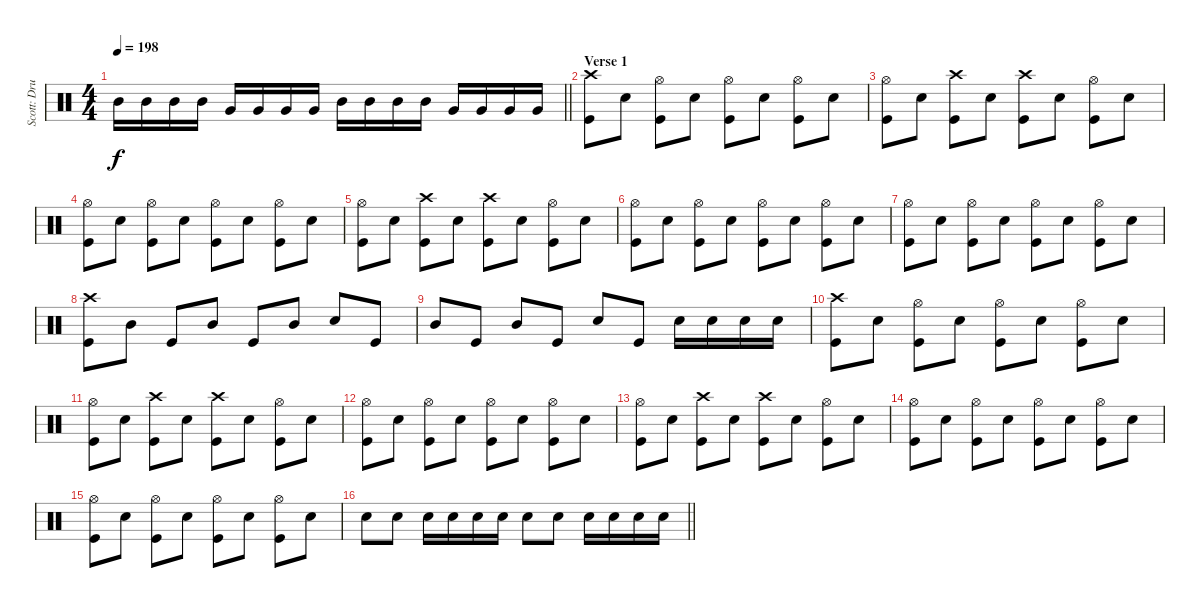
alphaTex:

\track ("Scott: Drums" "Scott: Dru") {instrument percussion}
\staff {score}
\articulation defaults
\ts (4 4)
\tempo 198
\clef neutral
\barLineRight lightlight
\ks c "Mid Tom (hit)".16{dy f} "Mid Tom (hit)".16 "Mid Tom (hit)".16 "Mid Tom (hit)".16 "Very Low Tom (hit)".16 "Very Low Tom (hit)".16 "Very Low Tom (hit)".16 "Very Low Tom (hit)".16 "Mid Tom (hit)".16 "Mid Tom (hit)".16 "Mid Tom (hit)".16 "Mid Tom (hit)".16 "Very Low Tom (hit)".16 "Very Low Tom (hit)".16 "Very Low Tom (hit)".16 "Very Low Tom (hit)".16
|
\section ("" "Verse 1")
("Crash high (hit)" "Kick (hit)").8 "Electric Snare (hit)".8 ("Hi-Hat (open)" "Kick (hit)").8 "Electric Snare (hit)".8 ("Hi-Hat (open)" "Kick (hit)").8 "Electric Snare (hit)".8 ("Hi-Hat (open)" "Kick (hit)").8 "Electric Snare (hit)".8 |
("Hi-Hat (open)" "Kick (hit)").8 "Electric Snare (hit)".8 ("Crash high (hit)" "Kick (hit)").8 "Electric Snare (hit)".8 ("Crash high (hit)" "Kick (hit)").8 "Electric Snare (hit)".8 ("Hi-Hat (open)" "Kick (hit)").8 "Electric Snare (hit)".8 |
("Hi-Hat (open)" "Kick (hit)").8 "Electric Snare (hit)".8 ("Hi-Hat (open)" "Kick (hit)").8 "Electric Snare (hit)".8 ("Hi-Hat (open)" "Kick (hit)").8 "Electric Snare (hit)".8 ("Hi-Hat (open)" "Kick (hit)").8 "Electric Snare (hit)".8 |
("Hi-Hat (open)" "Kick (hit)").8 "Electric Snare (hit)".8 ("Crash high (hit)" "Kick (hit)").8 "Electric Snare (hit)".8 ("Crash high (hit)" "Kick (hit)").8 "Electric Snare (hit)".8 ("Hi-Hat (open)" "Kick (hit)").8 "Electric Snare (hit)".8 |
("Hi-Hat (open)" "Kick (hit)").8 "Electric Snare (hit)".8 ("Hi-Hat (open)" "Kick (hit)").8 "Electric Snare (hit)".8 ("Hi-Hat (open)" "Kick (hit)").8 "Electric Snare (hit)".8 ("Hi-Hat (open)" "Kick (hit)").8 "Electric Snare (hit)".8 |
("Hi-Hat (open)" "Kick (hit)").8 "Electric Snare (hit)".8 ("Hi-Hat (open)" "Kick (hit)").8 "Electric Snare (hit)".8 ("Hi-Hat (open)" "Kick (hit)").8 "Electric Snare (hit)".8 ("Hi-Hat (open)" "Kick (hit)").8 "Electric Snare (hit)".8 |
("Crash high (hit)" "Kick (hit)").8 "Mid Tom (hit)".8 "Kick (hit)".8 "Mid Tom (hit)".8 "Kick (hit)".8 "Mid Tom (hit)".8 "Electric Snare (hit)".8 "Kick (hit)".8 |
"Mid Tom (hit)".8 "Kick (hit)".8 "Mid Tom (hit)".8 "Kick (hit)".8 "Electric Snare (hit)".8 "Kick (hit)".8 "Electric Snare (hit)".16 "Electric Snare (hit)".16 "Electric Snare (hit)".16 "Electric Snare (hit)".16 |
("Crash high (hit)" "Kick (hit)").8 "Electric Snare (hit)".8 ("Hi-Hat (open)" "Kick (hit)").8 "Electric Snare (hit)".8 ("Hi-Hat (open)" "Kick (hit)").8 "Electric Snare (hit)".8 ("Hi-Hat (open)" "Kick (hit)").8 "Electric Snare (hit)".8 |
("Hi-Hat (open)" "Kick (hit)").8 "Electric Snare (hit)".8 ("Crash high (hit)" "Kick (hit)").8 "Electric Snare (hit)".8 ("Crash high (hit)" "Kick (hit)").8 "Electric Snare (hit)".8 ("Hi-Hat (open)" "Kick (hit)").8 "Electric Snare (hit)".8 |
("Hi-Hat (open)" "Kick (hit)").8 "Electric Snare (hit)".8 ("Hi-Hat (open)" "Kick (hit)").8 "Electric Snare (hit)".8 ("Hi-Hat (open)" "Kick (hit)").8 "Electric Snare (hit)".8 ("Hi-Hat (open)" "Kick (hit)").8 "Electric Snare (hit)".8 |
("Hi-Hat (open)" "Kick (hit)").8 "Electric Snare (hit)".8 ("Crash high (hit)" "Kick (hit)").8 "Electric Snare (hit)".8 ("Crash high (hit)" "Kick (hit)").8 "Electric Snare (hit)".8 ("Hi-Hat (open)" "Kick (hit)").8 "Electric Snare (hit)".8 |
("Hi-Hat (open)" "Kick (hit)").8 "Electric Snare (hit)".8 ("Hi-Hat (open)" "Kick (hit)").8 "Electric Snare (hit)".8 ("Hi-Hat (open)" "Kick (hit)").8 "Electric Snare (hit)".8 ("Hi-Hat (open)" "Kick (hit)").8 "Electric Snare (hit)".8 |
("Hi-Hat (open)" "Kick (hit)").8 "Electric Snare (hit)".8 ("Hi-Hat (open)" "Kick (hit)").8 "Electric Snare (hit)".8 ("Hi-Hat (open)" "Kick (hit)").8 "Electric Snare (hit)".8 ("Hi-Hat (open)" "Kick (hit)").8 "Electric Snare (hit)".8 |
\barLineRight lightlight "Electric Snare (hit)".8 "Electric Snare (hit)".8 "Electric Snare (hit)".16 "Electric Snare (hit)".16 "Electric Snare (hit)".16 "Electric Snare (hit)".16 "Electric Snare (hit)".8 "Electric Snare (hit)".8 "Electric Snare (hit)".16 "Electric Snare (hit)".16 "Electric Snare (hit)".16 "Electric Snare (hit)".16
